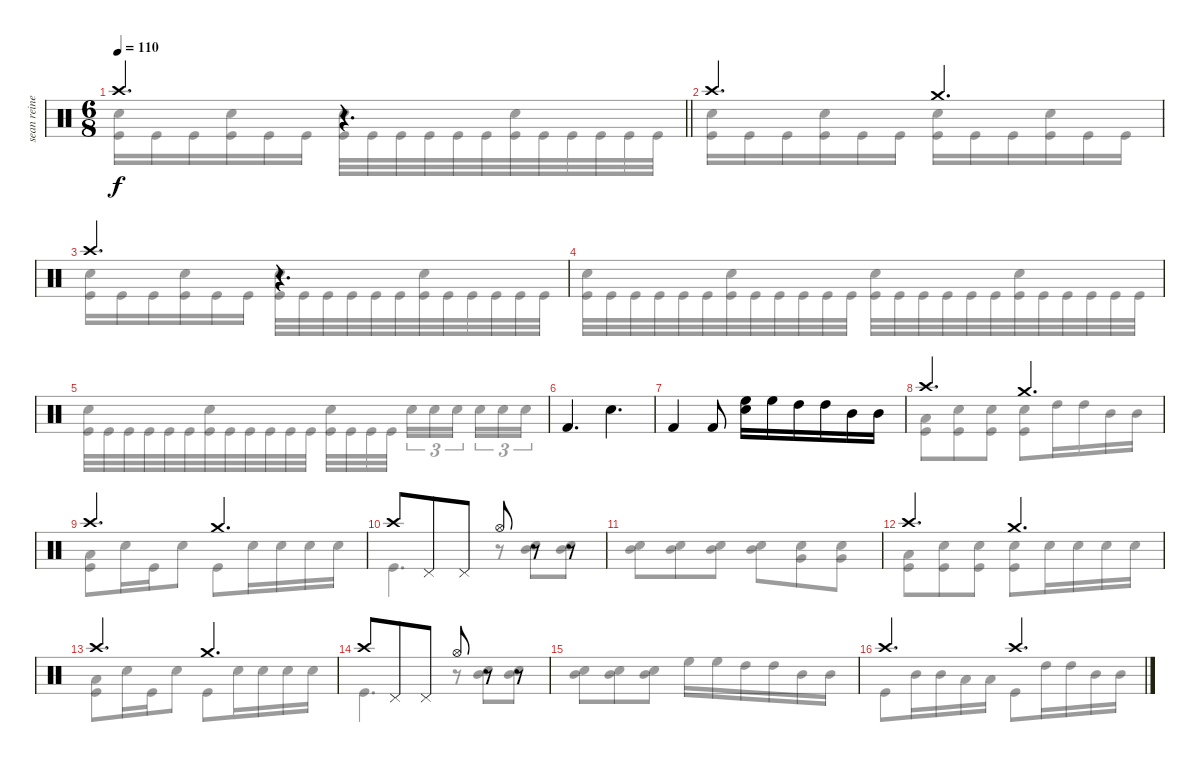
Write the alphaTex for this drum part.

\track ("sean reinert" "sean reine") {instrument percussion}
\staff {score}
\articulation defaults
\voice
\ts (6 8)
\tempo 110
\clef neutral
\barLineRight lightlight
\ks c "Crash high (hit)".4{d dy f}
r.4{d} |
\section ("" "")
"Crash high (hit)".4{d} "Crash medium (hit)".4{d} |
"Crash high (hit)".4{d} r.4{d} |
|
|
"Kick (hit) 2".4{d} "Snare (hit) 2".4{d} |
"Kick (hit) 2".4 "Kick (hit) 2".8 ("High Floor Tom (hit)" "Snare (hit) 2").16 "High Floor Tom (hit)".16 "High Tom (hit)".16 "High Tom (hit)".16 "Mid Tom (hit)".16 "Mid Tom (hit)".16 |
"Crash high (hit)".4{d} "Crash medium (hit)".4{d} |
"Crash high (hit)".4{d} "Crash medium (hit)".4{d} |
"Crash high (hit)".8 "Pedal Hi-Hat (hit)".8 "Pedal Hi-Hat (hit)".8 "Hi-Hat (open)".8 r.8 r.8 |
|
"Crash high (hit)".4{d} "Crash medium (hit)".4{d} |
"Crash high (hit)".4{d} "Crash medium (hit)".4{d} |
"Crash high (hit)".8 "Pedal Hi-Hat (hit)".8 "Pedal Hi-Hat (hit)".8 "Hi-Hat (open)".8 r.8 r.8 |
|
"Crash high (hit)".4{d} "Crash high (hit)".4{d}
\voice
\clef neutral
\ottava regular
\simile none
\barLineRight lightlight
\ks c
("Snare (hit) 2" "Kick (hit)").16{dy f} "Kick (hit)".16 "Kick (hit)".16 ("Snare (hit) 2" "Kick (hit)").16 "Kick (hit)".16 "Kick (hit)".16 ("Snare (hit) 2" "Kick (hit)").32 "Kick (hit)".32 "Kick (hit)".32 "Kick (hit)".32 "Kick (hit)".32 "Kick (hit)".32 ("Snare (hit) 2" "Kick (hit)").32 "Kick (hit)".32 "Kick (hit)".32 "Kick (hit)".32 "Kick (hit)".32 "Kick (hit)".32 |
("Snare (hit) 2" "Kick (hit)").16 "Kick (hit)".16 "Kick (hit)".16 ("Snare (hit) 2" "Kick (hit)").16 "Kick (hit)".16 "Kick (hit)".16 ("Snare (hit) 2" "Kick (hit)").16 "Kick (hit)".16 "Kick (hit)".16 ("Snare (hit) 2" "Kick (hit)").16 "Kick (hit)".16 "Kick (hit)".16 |
("Snare (hit) 2" "Kick (hit)").16 "Kick (hit)".16 "Kick (hit)".16 ("Snare (hit) 2" "Kick (hit)").16 "Kick (hit)".16 "Kick (hit)".16 ("Snare (hit) 2" "Kick (hit)").32 "Kick (hit)".32 "Kick (hit)".32 "Kick (hit)".32 "Kick (hit)".32 "Kick (hit)".32 ("Snare (hit) 2" "Kick (hit)").32 "Kick (hit)".32 "Kick (hit)".32 "Kick (hit)".32 "Kick (hit)".32 "Kick (hit)".32 |
("Snare (hit) 2" "Kick (hit)").32 "Kick (hit)".32 "Kick (hit)".32 "Kick (hit)".32 "Kick (hit)".32 "Kick (hit)".32 ("Snare (hit) 2" "Kick (hit)").32 "Kick (hit)".32 "Kick (hit)".32 "Kick (hit)".32 "Kick (hit)".32 "Kick (hit)".32 ("Snare (hit) 2" "Kick (hit)").32 "Kick (hit)".32 "Kick (hit)".32 "Kick (hit)".32 "Kick (hit)".32 "Kick (hit)".32 ("Snare (hit) 2" "Kick (hit)").32 "Kick (hit)".32 "Kick (hit)".32 "Kick (hit)".32 "Kick (hit)".32 "Kick (hit)".32 |
("Snare (hit) 2" "Kick (hit)").32 "Kick (hit)".32 "Kick (hit)".32 "Kick (hit)".32 "Kick (hit)".32 "Kick (hit)".32 ("Snare (hit) 2" "Kick (hit)").32 "Kick (hit)".32 "Kick (hit)".32 "Kick (hit)".32 "Kick (hit)".32 "Kick (hit)".32 ("Snare (hit) 2" "Kick (hit)").32 "Kick (hit)".32 "Kick (hit)".32 "Kick (hit)".32{beam splitsecondary} "Snare (hit) 2".16{tu (3 2)} "Snare (hit) 2".16{tu (3 2)} "Snare (hit) 2".16{tu (3 2) beam splitsecondary} "Snare (hit) 2".16{tu (3 2)} "Snare (hit) 2".16{tu (3 2)} "Snare (hit) 2".16{tu (3 2)} |
|
|
("Low Tom (hit)" "Kick (hit)").8 ("Snare (hit) 2" "Kick (hit)").8 ("Snare (hit) 2" "Kick (hit)").8 ("Snare (hit) 2" "Kick (hit)").8 "High Tom (hit)".16 "High Tom (hit)".16 "Mid Tom (hit)".16 "Mid Tom (hit)".16 |
("Low Tom (hit)" "Kick (hit)").8 "Snare (hit) 2".16 "Kick (hit)".16 "Snare (hit) 2".8 "Kick (hit)".8 "Snare (hit) 2".16 "Snare (hit) 2".16 "Snare (hit) 2".16 "Snare (hit) 2".16 |
"Kick (hit)".4{d} r.8 ("Mid Tom (hit)" "Snare (hit) 2").8 ("Mid Tom (hit)" "Snare (hit) 2").8 |
("Mid Tom (hit)" "Snare (hit) 2").8 ("Mid Tom (hit)" "Snare (hit) 2").8 ("Mid Tom (hit)" "Snare (hit) 2").8 ("Mid Tom (hit)" "Snare (hit) 2").8 ("Very Low Tom (hit)" "Snare (hit) 2").8 ("Very Low Tom (hit)" "Snare (hit) 2").8 |
("Low Tom (hit)" "Kick (hit)").8 ("Snare (hit) 2" "Kick (hit)").8 ("Snare (hit) 2" "Kick (hit)").8 ("Snare (hit) 2" "Kick (hit)").8 "Snare (hit) 2".16 "Snare (hit) 2".16 "Snare (hit) 2".16 "Snare (hit) 2".16 |
("Low Tom (hit)" "Kick (hit)").8 "Snare (hit) 2".16 "Kick (hit)".16 "Snare (hit) 2".8 "Kick (hit)".8 "Snare (hit) 2".16 "Snare (hit) 2".16 "Snare (hit) 2".16 "Snare (hit) 2".16 |
"Kick (hit)".4{d} r.8 ("Mid Tom (hit)" "Snare (hit) 2").8 ("Mid Tom (hit)" "Snare (hit) 2").8 |
("Mid Tom (hit)" "Snare (hit) 2").8 ("Mid Tom (hit)" "Snare (hit) 2").8 ("Mid Tom (hit)" "Snare (hit) 2").8 "High Floor Tom (hit)".16 "High Floor Tom (hit)".16 "High Tom (hit)".16 "High Tom (hit)".16 "Mid Tom (hit)".16 "Mid Tom (hit)".16 |
"Kick (hit)".8 "Mid Tom (hit)".16 "Mid Tom (hit)".16 "Low Tom (hit)".16 "Low Tom (hit)".16 "Kick (hit)".8 "High Tom (hit)".16 "High Tom (hit)".16 "Mid Tom (hit)".16 "Mid Tom (hit)".16
